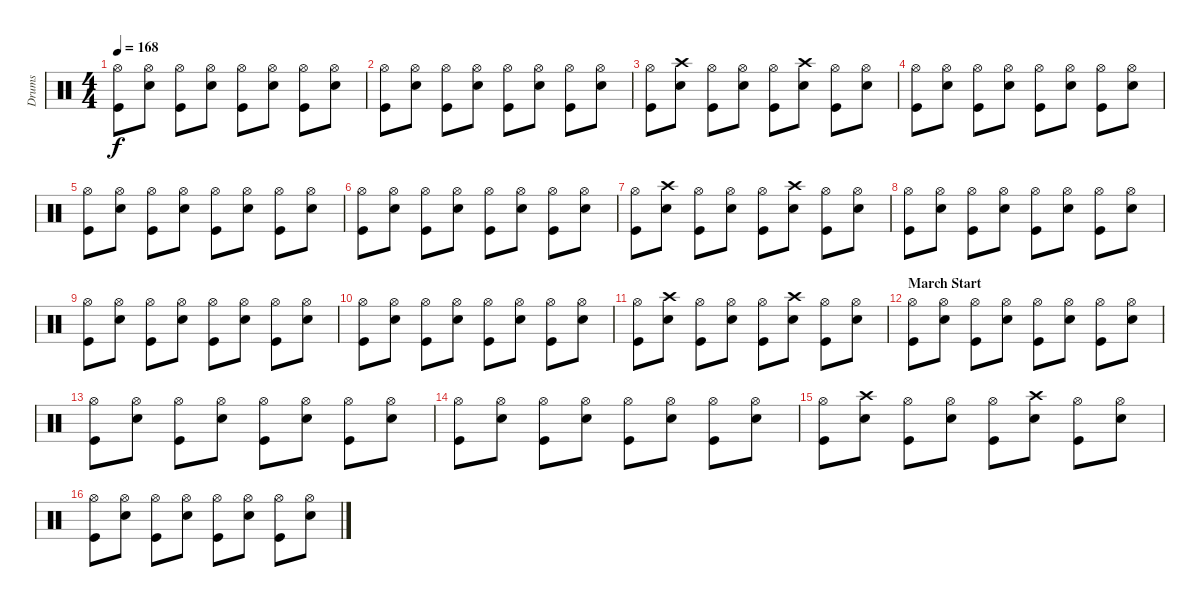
\track ("Drums" "Drums") {instrument percussion}
\staff {score}
\articulation defaults
\ts (4 4)
\tempo 168
\clef neutral
\ks c
("Hi-Hat (open)" "Kick (hit)").8{dy f} ("Hi-Hat (open)" "Snare (hit) 2").8 ("Hi-Hat (open)" "Kick (hit)").8 ("Hi-Hat (open)" "Snare (hit) 2").8 ("Hi-Hat (open)" "Kick (hit)").8 ("Hi-Hat (open)" "Snare (hit) 2").8 ("Hi-Hat (open)" "Kick (hit)").8 ("Hi-Hat (open)" "Snare (hit) 2").8 |
("Hi-Hat (open)" "Kick (hit)").8 ("Hi-Hat (open)" "Snare (hit) 2").8 ("Hi-Hat (open)" "Kick (hit)").8 ("Hi-Hat (open)" "Snare (hit) 2").8 ("Hi-Hat (open)" "Kick (hit)").8 ("Hi-Hat (open)" "Snare (hit) 2").8 ("Hi-Hat (open)" "Kick (hit)").8 ("Hi-Hat (open)" "Snare (hit) 2").8 |
("Hi-Hat (open)" "Kick (hit)").8 ("Crash high (hit)" "Snare (hit) 2").8 ("Hi-Hat (open)" "Kick (hit)").8 ("Hi-Hat (open)" "Snare (hit) 2").8 ("Hi-Hat (open)" "Kick (hit)").8 ("Crash high (hit)" "Snare (hit) 2").8 ("Hi-Hat (open)" "Kick (hit)").8 ("Hi-Hat (open)" "Snare (hit) 2").8 |
("Hi-Hat (open)" "Kick (hit)").8 ("Hi-Hat (open)" "Snare (hit) 2").8 ("Hi-Hat (open)" "Kick (hit)").8 ("Hi-Hat (open)" "Snare (hit) 2").8 ("Hi-Hat (open)" "Kick (hit)").8 ("Hi-Hat (open)" "Snare (hit) 2").8 ("Hi-Hat (open)" "Kick (hit)").8 ("Hi-Hat (open)" "Snare (hit) 2").8 |
("Hi-Hat (open)" "Kick (hit)").8 ("Hi-Hat (open)" "Snare (hit) 2").8 ("Hi-Hat (open)" "Kick (hit)").8 ("Hi-Hat (open)" "Snare (hit) 2").8 ("Hi-Hat (open)" "Kick (hit)").8 ("Hi-Hat (open)" "Snare (hit) 2").8 ("Hi-Hat (open)" "Kick (hit)").8 ("Hi-Hat (open)" "Snare (hit) 2").8 |
("Hi-Hat (open)" "Kick (hit)").8 ("Hi-Hat (open)" "Snare (hit) 2").8 ("Hi-Hat (open)" "Kick (hit)").8 ("Hi-Hat (open)" "Snare (hit) 2").8 ("Hi-Hat (open)" "Kick (hit)").8 ("Hi-Hat (open)" "Snare (hit) 2").8 ("Hi-Hat (open)" "Kick (hit)").8 ("Hi-Hat (open)" "Snare (hit) 2").8 |
("Hi-Hat (open)" "Kick (hit)").8 ("Crash high (hit)" "Snare (hit) 2").8 ("Hi-Hat (open)" "Kick (hit)").8 ("Hi-Hat (open)" "Snare (hit) 2").8 ("Hi-Hat (open)" "Kick (hit)").8 ("Crash high (hit)" "Snare (hit) 2").8 ("Hi-Hat (open)" "Kick (hit)").8 ("Hi-Hat (open)" "Snare (hit) 2").8 |
("Hi-Hat (open)" "Kick (hit)").8 ("Hi-Hat (open)" "Snare (hit) 2").8 ("Hi-Hat (open)" "Kick (hit)").8 ("Hi-Hat (open)" "Snare (hit) 2").8 ("Hi-Hat (open)" "Kick (hit)").8 ("Hi-Hat (open)" "Snare (hit) 2").8 ("Hi-Hat (open)" "Kick (hit)").8 ("Hi-Hat (open)" "Snare (hit) 2").8 |
("Hi-Hat (open)" "Kick (hit)").8 ("Hi-Hat (open)" "Snare (hit) 2").8 ("Hi-Hat (open)" "Kick (hit)").8 ("Hi-Hat (open)" "Snare (hit) 2").8 ("Hi-Hat (open)" "Kick (hit)").8 ("Hi-Hat (open)" "Snare (hit) 2").8 ("Hi-Hat (open)" "Kick (hit)").8 ("Hi-Hat (open)" "Snare (hit) 2").8 |
("Hi-Hat (open)" "Kick (hit)").8 ("Hi-Hat (open)" "Snare (hit) 2").8 ("Hi-Hat (open)" "Kick (hit)").8 ("Hi-Hat (open)" "Snare (hit) 2").8 ("Hi-Hat (open)" "Kick (hit)").8 ("Hi-Hat (open)" "Snare (hit) 2").8 ("Hi-Hat (open)" "Kick (hit)").8 ("Hi-Hat (open)" "Snare (hit) 2").8 |
("Hi-Hat (open)" "Kick (hit)").8 ("Crash high (hit)" "Snare (hit) 2").8 ("Hi-Hat (open)" "Kick (hit)").8 ("Hi-Hat (open)" "Snare (hit) 2").8 ("Hi-Hat (open)" "Kick (hit)").8 ("Crash high (hit)" "Snare (hit) 2").8 ("Hi-Hat (open)" "Kick (hit)").8 ("Hi-Hat (open)" "Snare (hit) 2").8 |
\section ("" "March Start")
("Hi-Hat (open)" "Kick (hit)").8 ("Hi-Hat (open)" "Snare (hit) 2").8 ("Hi-Hat (open)" "Kick (hit)").8 ("Hi-Hat (open)" "Snare (hit) 2").8 ("Hi-Hat (open)" "Kick (hit)").8 ("Hi-Hat (open)" "Snare (hit) 2").8 ("Hi-Hat (open)" "Kick (hit)").8 ("Hi-Hat (open)" "Snare (hit) 2").8 |
("Hi-Hat (open)" "Kick (hit)").8 ("Hi-Hat (open)" "Snare (hit) 2").8 ("Hi-Hat (open)" "Kick (hit)").8 ("Hi-Hat (open)" "Snare (hit) 2").8 ("Hi-Hat (open)" "Kick (hit)").8 ("Hi-Hat (open)" "Snare (hit) 2").8 ("Hi-Hat (open)" "Kick (hit)").8 ("Hi-Hat (open)" "Snare (hit) 2").8 |
("Hi-Hat (open)" "Kick (hit)").8 ("Hi-Hat (open)" "Snare (hit) 2").8 ("Hi-Hat (open)" "Kick (hit)").8 ("Hi-Hat (open)" "Snare (hit) 2").8 ("Hi-Hat (open)" "Kick (hit)").8 ("Hi-Hat (open)" "Snare (hit) 2").8 ("Hi-Hat (open)" "Kick (hit)").8 ("Hi-Hat (open)" "Snare (hit) 2").8 |
("Hi-Hat (open)" "Kick (hit)").8 ("Crash high (hit)" "Snare (hit) 2").8 ("Hi-Hat (open)" "Kick (hit)").8 ("Hi-Hat (open)" "Snare (hit) 2").8 ("Hi-Hat (open)" "Kick (hit)").8 ("Crash high (hit)" "Snare (hit) 2").8 ("Hi-Hat (open)" "Kick (hit)").8 ("Hi-Hat (open)" "Snare (hit) 2").8 |
("Hi-Hat (open)" "Kick (hit)").8 ("Hi-Hat (open)" "Snare (hit) 2").8 ("Hi-Hat (open)" "Kick (hit)").8 ("Hi-Hat (open)" "Snare (hit) 2").8 ("Hi-Hat (open)" "Kick (hit)").8 ("Hi-Hat (open)" "Snare (hit) 2").8 ("Hi-Hat (open)" "Kick (hit)").8 ("Hi-Hat (open)" "Snare (hit) 2").8
